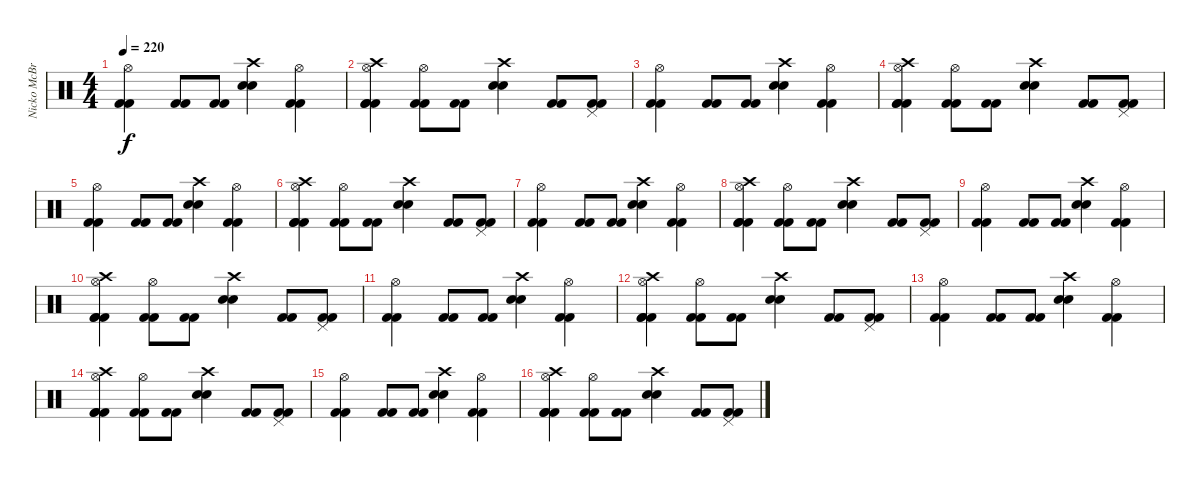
\track ("Nicko McBrain" "Nicko McBr") {instrument percussion}
\staff {score}
\articulation defaults
\ts (4 4)
\tempo 220
\clef neutral
\ks c
("Hi-Hat (open)" "Kick (hit) 2" "Kick (hit) 2").4{dy f} ("Kick (hit) 2" "Kick (hit) 2").8 ("Kick (hit) 2" "Kick (hit) 2").8 ("Crash high (hit)" "Snare (hit) 2" "Snare (hit) 2").4 ("Hi-Hat (open)" "Kick (hit) 2" "Kick (hit) 2").4 |
("Crash high (hit)" "Hi-Hat (open)" "Kick (hit) 2" "Kick (hit) 2" "Kick (hit) 2").4 ("Hi-Hat (open)" "Kick (hit) 2" "Kick (hit) 2").8 ("Kick (hit) 2" "Kick (hit) 2").8 ("Crash high (hit)" "Snare (hit) 2" "Snare (hit) 2").4 ("Kick (hit) 2" "Kick (hit) 2").8 ("Pedal Hi-Hat (hit)" "Kick (hit) 2" "Kick (hit) 2").8 |
("Hi-Hat (open)" "Kick (hit) 2" "Kick (hit) 2").4 ("Kick (hit) 2" "Kick (hit) 2").8 ("Kick (hit) 2" "Kick (hit) 2").8 ("Crash high (hit)" "Snare (hit) 2" "Snare (hit) 2").4 ("Hi-Hat (open)" "Kick (hit) 2" "Kick (hit) 2").4 |
("Crash high (hit)" "Hi-Hat (open)" "Kick (hit) 2" "Kick (hit) 2" "Kick (hit) 2").4 ("Hi-Hat (open)" "Kick (hit) 2" "Kick (hit) 2").8 ("Kick (hit) 2" "Kick (hit) 2").8 ("Crash high (hit)" "Snare (hit) 2" "Snare (hit) 2").4 ("Kick (hit) 2" "Kick (hit) 2").8 ("Pedal Hi-Hat (hit)" "Kick (hit) 2" "Kick (hit) 2").8 |
("Hi-Hat (open)" "Kick (hit) 2" "Kick (hit) 2").4 ("Kick (hit) 2" "Kick (hit) 2").8 ("Kick (hit) 2" "Kick (hit) 2").8 ("Crash high (hit)" "Snare (hit) 2" "Snare (hit) 2").4 ("Hi-Hat (open)" "Kick (hit) 2" "Kick (hit) 2").4 |
("Crash high (hit)" "Hi-Hat (open)" "Kick (hit) 2" "Kick (hit) 2" "Kick (hit) 2").4 ("Hi-Hat (open)" "Kick (hit) 2" "Kick (hit) 2").8 ("Kick (hit) 2" "Kick (hit) 2").8 ("Crash high (hit)" "Snare (hit) 2" "Snare (hit) 2").4 ("Kick (hit) 2" "Kick (hit) 2").8 ("Pedal Hi-Hat (hit)" "Kick (hit) 2" "Kick (hit) 2").8 |
("Hi-Hat (open)" "Kick (hit) 2" "Kick (hit) 2").4 ("Kick (hit) 2" "Kick (hit) 2").8 ("Kick (hit) 2" "Kick (hit) 2").8 ("Crash high (hit)" "Snare (hit) 2" "Snare (hit) 2").4 ("Hi-Hat (open)" "Kick (hit) 2" "Kick (hit) 2").4 |
("Crash high (hit)" "Hi-Hat (open)" "Kick (hit) 2" "Kick (hit) 2" "Kick (hit) 2").4 ("Hi-Hat (open)" "Kick (hit) 2" "Kick (hit) 2").8 ("Kick (hit) 2" "Kick (hit) 2").8 ("Crash high (hit)" "Snare (hit) 2" "Snare (hit) 2").4 ("Kick (hit) 2" "Kick (hit) 2").8 ("Pedal Hi-Hat (hit)" "Kick (hit) 2" "Kick (hit) 2").8 |
("Hi-Hat (open)" "Kick (hit) 2" "Kick (hit) 2").4 ("Kick (hit) 2" "Kick (hit) 2").8 ("Kick (hit) 2" "Kick (hit) 2").8 ("Crash high (hit)" "Snare (hit) 2" "Snare (hit) 2").4 ("Hi-Hat (open)" "Kick (hit) 2" "Kick (hit) 2").4 |
("Crash high (hit)" "Hi-Hat (open)" "Kick (hit) 2" "Kick (hit) 2" "Kick (hit) 2").4 ("Hi-Hat (open)" "Kick (hit) 2" "Kick (hit) 2").8 ("Kick (hit) 2" "Kick (hit) 2").8 ("Crash high (hit)" "Snare (hit) 2" "Snare (hit) 2").4 ("Kick (hit) 2" "Kick (hit) 2").8 ("Pedal Hi-Hat (hit)" "Kick (hit) 2" "Kick (hit) 2").8 |
("Hi-Hat (open)" "Kick (hit) 2" "Kick (hit) 2").4 ("Kick (hit) 2" "Kick (hit) 2").8 ("Kick (hit) 2" "Kick (hit) 2").8 ("Crash high (hit)" "Snare (hit) 2" "Snare (hit) 2").4 ("Hi-Hat (open)" "Kick (hit) 2" "Kick (hit) 2").4 |
("Crash high (hit)" "Hi-Hat (open)" "Kick (hit) 2" "Kick (hit) 2" "Kick (hit) 2").4 ("Hi-Hat (open)" "Kick (hit) 2" "Kick (hit) 2").8 ("Kick (hit) 2" "Kick (hit) 2").8 ("Crash high (hit)" "Snare (hit) 2" "Snare (hit) 2").4 ("Kick (hit) 2" "Kick (hit) 2").8 ("Pedal Hi-Hat (hit)" "Kick (hit) 2" "Kick (hit) 2").8 |
("Hi-Hat (open)" "Kick (hit) 2" "Kick (hit) 2").4 ("Kick (hit) 2" "Kick (hit) 2").8 ("Kick (hit) 2" "Kick (hit) 2").8 ("Crash high (hit)" "Snare (hit) 2" "Snare (hit) 2").4 ("Hi-Hat (open)" "Kick (hit) 2" "Kick (hit) 2").4 |
("Crash high (hit)" "Hi-Hat (open)" "Kick (hit) 2" "Kick (hit) 2" "Kick (hit) 2").4 ("Hi-Hat (open)" "Kick (hit) 2" "Kick (hit) 2").8 ("Kick (hit) 2" "Kick (hit) 2").8 ("Crash high (hit)" "Snare (hit) 2" "Snare (hit) 2").4 ("Kick (hit) 2" "Kick (hit) 2").8 ("Pedal Hi-Hat (hit)" "Kick (hit) 2" "Kick (hit) 2").8 |
("Hi-Hat (open)" "Kick (hit) 2" "Kick (hit) 2").4 ("Kick (hit) 2" "Kick (hit) 2").8 ("Kick (hit) 2" "Kick (hit) 2").8 ("Crash high (hit)" "Snare (hit) 2" "Snare (hit) 2").4 ("Hi-Hat (open)" "Kick (hit) 2" "Kick (hit) 2").4 |
("Crash high (hit)" "Hi-Hat (open)" "Kick (hit) 2" "Kick (hit) 2" "Kick (hit) 2").4 ("Hi-Hat (open)" "Kick (hit) 2" "Kick (hit) 2").8 ("Kick (hit) 2" "Kick (hit) 2").8 ("Crash high (hit)" "Snare (hit) 2" "Snare (hit) 2").4 ("Kick (hit) 2" "Kick (hit) 2").8 ("Pedal Hi-Hat (hit)" "Kick (hit) 2" "Kick (hit) 2").8
